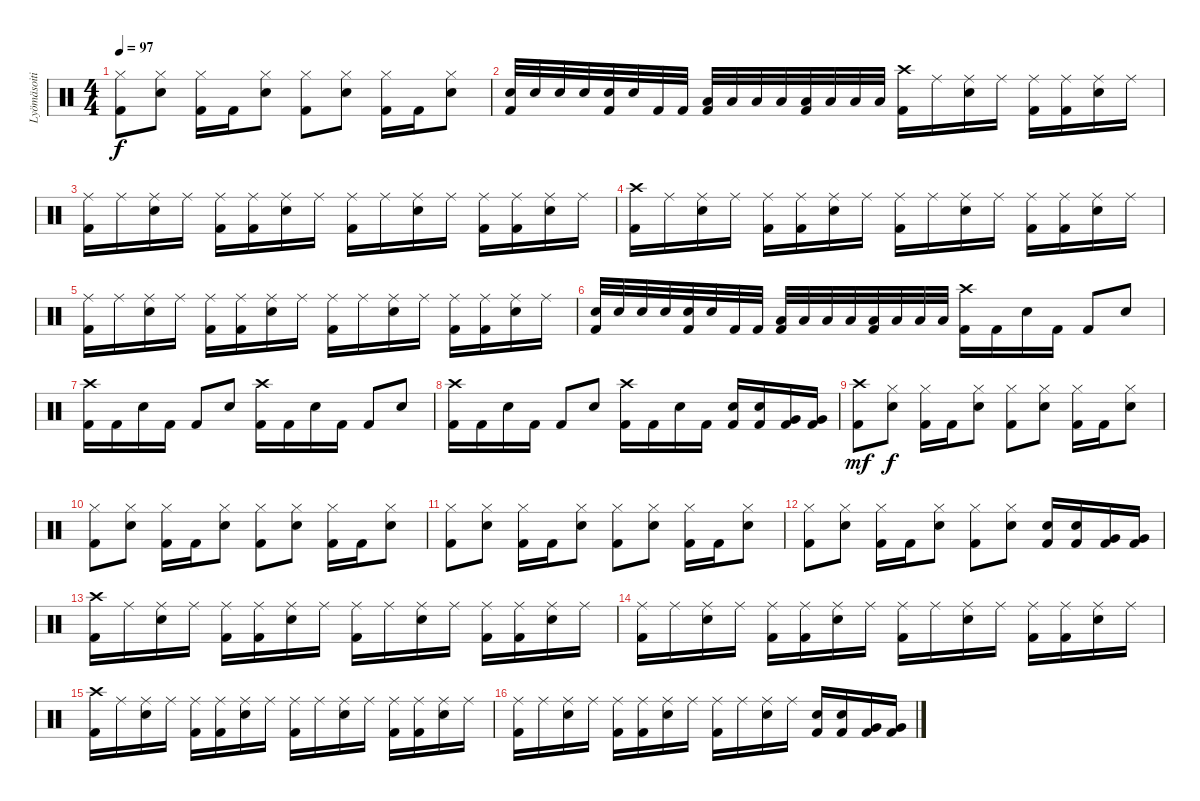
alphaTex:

\track ("Lyömäsoitin" "Lyömäsoiti") {mute instrument percussion}
\staff {score}
\articulation defaults
\ts (4 4)
\tempo 97
\clef neutral
\ks c
("Hi-Hat (closed)" "Kick (hit) 2").8{dy f} ("Hi-Hat (closed)" "Snare (hit) 2").8 ("Hi-Hat (closed)" "Kick (hit) 2").16 "Kick (hit) 2".16 ("Hi-Hat (closed)" "Snare (hit) 2").8 ("Hi-Hat (closed)" "Kick (hit) 2").8 ("Hi-Hat (closed)" "Snare (hit) 2").8 ("Hi-Hat (closed)" "Kick (hit) 2").16 "Kick (hit) 2".16 ("Hi-Hat (closed)" "Snare (hit) 2").8 |
("Snare (hit) 2" "Kick (hit) 2").32 "Snare (hit) 2".32 "Snare (hit) 2".32 "Snare (hit) 2".32 ("Snare (hit) 2" "Kick (hit) 2").32 "Snare (hit) 2".32 "Kick (hit) 2".32 "Kick (hit) 2".32 ("Low Floor Tom (hit)" "Kick (hit) 2").32 "Low Floor Tom (hit)".32 "Low Floor Tom (hit)".32 "Low Floor Tom (hit)".32 ("Low Floor Tom (hit)" "Kick (hit) 2").32 "Low Floor Tom (hit)".32 "Low Floor Tom (hit)".32 "Low Floor Tom (hit)".32 ("Crash high (hit)" "Kick (hit) 2").16 "Ride (middle)".16 ("Ride (middle)" "Snare (hit) 2").16 "Ride (middle)".16 ("Ride (middle)" "Kick (hit) 2").16 ("Ride (middle)" "Kick (hit) 2").16 ("Ride (middle)" "Snare (hit) 2").16 "Ride (middle)".16 |
("Ride (middle)" "Kick (hit) 2").16 "Ride (middle)".16 ("Ride (middle)" "Snare (hit) 2").16 "Ride (middle)".16 ("Ride (middle)" "Kick (hit) 2").16 ("Ride (middle)" "Kick (hit) 2").16 ("Ride (middle)" "Snare (hit) 2").16 "Ride (middle)".16 ("Ride (middle)" "Kick (hit) 2").16 "Ride (middle)".16 ("Ride (middle)" "Snare (hit) 2").16 "Ride (middle)".16 ("Ride (middle)" "Kick (hit) 2").16 ("Ride (middle)" "Kick (hit) 2").16 ("Ride (middle)" "Snare (hit) 2").16 "Ride (middle)".16 |
("Crash high (hit)" "Kick (hit) 2").16 "Ride (middle)".16 ("Ride (middle)" "Snare (hit) 2").16 "Ride (middle)".16 ("Ride (middle)" "Kick (hit) 2").16 ("Ride (middle)" "Kick (hit) 2").16 ("Ride (middle)" "Snare (hit) 2").16 "Ride (middle)".16 ("Ride (middle)" "Kick (hit) 2").16 "Ride (middle)".16 ("Ride (middle)" "Snare (hit) 2").16 "Ride (middle)".16 ("Ride (middle)" "Kick (hit) 2").16 ("Ride (middle)" "Kick (hit) 2").16 ("Ride (middle)" "Snare (hit) 2").16 "Ride (middle)".16 |
("Ride (middle)" "Kick (hit) 2").16 "Ride (middle)".16 ("Ride (middle)" "Snare (hit) 2").16 "Ride (middle)".16 ("Ride (middle)" "Kick (hit) 2").16 ("Ride (middle)" "Kick (hit) 2").16 ("Ride (middle)" "Snare (hit) 2").16 "Ride (middle)".16 ("Ride (middle)" "Kick (hit) 2").16 "Ride (middle)".16 ("Ride (middle)" "Snare (hit) 2").16 "Ride (middle)".16 ("Ride (middle)" "Kick (hit) 2").16 ("Ride (middle)" "Kick (hit) 2").16 ("Ride (middle)" "Snare (hit) 2").16 "Ride (middle)".16 |
("Snare (hit) 2" "Kick (hit) 2").32 "Snare (hit) 2".32 "Snare (hit) 2".32 "Snare (hit) 2".32 ("Snare (hit) 2" "Kick (hit) 2").32 "Snare (hit) 2".32 "Kick (hit) 2".32 "Kick (hit) 2".32 ("Low Floor Tom (hit)" "Kick (hit) 2").32 "Low Floor Tom (hit)".32 "Low Floor Tom (hit)".32 "Low Floor Tom (hit)".32 ("Low Floor Tom (hit)" "Kick (hit) 2").32 "Low Floor Tom (hit)".32 "Low Floor Tom (hit)".32 "Low Floor Tom (hit)".32 ("Crash high (hit)" "Kick (hit) 2").16 "Kick (hit) 2".16 "Snare (hit) 2".16 "Kick (hit) 2".16 "Kick (hit) 2".8 "Snare (hit) 2".8 |
("Crash high (hit)" "Kick (hit) 2").16 "Kick (hit) 2".16 "Snare (hit) 2".16 "Kick (hit) 2".16 "Kick (hit) 2".8 "Snare (hit) 2".8 ("Crash high (hit)" "Kick (hit) 2").16 "Kick (hit) 2".16 "Snare (hit) 2".16 "Kick (hit) 2".16 "Kick (hit) 2".8 "Snare (hit) 2".8 |
("Crash high (hit)" "Kick (hit) 2").16 "Kick (hit) 2".16 "Snare (hit) 2".16 "Kick (hit) 2".16 "Kick (hit) 2".8 "Snare (hit) 2".8 ("Crash high (hit)" "Kick (hit) 2").16 "Kick (hit) 2".16 "Snare (hit) 2".16 "Kick (hit) 2".16 ("Snare (hit) 2" "Kick (hit) 2").16 ("Snare (hit) 2" "Kick (hit) 2").16 ("Very Low Tom (hit)" "Kick (hit) 2").16 ("Very Low Tom (hit)" "Kick (hit) 2").16 |
("Crash high (hit)" "Kick (hit) 2").8{dy mf} ("Hi-Hat (closed)" "Snare (hit) 2").8{dy f} ("Hi-Hat (closed)" "Kick (hit) 2").16 "Kick (hit) 2".16 ("Hi-Hat (closed)" "Snare (hit) 2").8 ("Hi-Hat (closed)" "Kick (hit) 2").8 ("Hi-Hat (closed)" "Snare (hit) 2").8 ("Hi-Hat (closed)" "Kick (hit) 2").16 "Kick (hit) 2".16 ("Hi-Hat (closed)" "Snare (hit) 2").8 |
("Hi-Hat (closed)" "Kick (hit) 2").8 ("Hi-Hat (closed)" "Snare (hit) 2").8 ("Hi-Hat (closed)" "Kick (hit) 2").16 "Kick (hit) 2".16 ("Hi-Hat (closed)" "Snare (hit) 2").8 ("Hi-Hat (closed)" "Kick (hit) 2").8 ("Hi-Hat (closed)" "Snare (hit) 2").8 ("Hi-Hat (closed)" "Kick (hit) 2").16 "Kick (hit) 2".16 ("Hi-Hat (closed)" "Snare (hit) 2").8 |
("Hi-Hat (closed)" "Kick (hit) 2").8 ("Hi-Hat (closed)" "Snare (hit) 2").8 ("Hi-Hat (closed)" "Kick (hit) 2").16 "Kick (hit) 2".16 ("Hi-Hat (closed)" "Snare (hit) 2").8 ("Hi-Hat (closed)" "Kick (hit) 2").8 ("Hi-Hat (closed)" "Snare (hit) 2").8 ("Hi-Hat (closed)" "Kick (hit) 2").16 "Kick (hit) 2".16 ("Hi-Hat (closed)" "Snare (hit) 2").8 |
("Hi-Hat (closed)" "Kick (hit) 2").8 ("Hi-Hat (closed)" "Snare (hit) 2").8 ("Hi-Hat (closed)" "Kick (hit) 2").16 "Kick (hit) 2".16 ("Hi-Hat (closed)" "Snare (hit) 2").8 ("Hi-Hat (closed)" "Kick (hit) 2").8 ("Hi-Hat (closed)" "Snare (hit) 2").8 ("Snare (hit) 2" "Kick (hit) 2").16 ("Snare (hit) 2" "Kick (hit) 2").16 ("Very Low Tom (hit)" "Kick (hit) 2").16 ("Very Low Tom (hit)" "Kick (hit) 2").16 |
("Crash high (hit)" "Kick (hit) 2").16 "Ride (middle)".16 ("Ride (middle)" "Snare (hit) 2").16 "Ride (middle)".16 ("Ride (middle)" "Kick (hit) 2").16 ("Ride (middle)" "Kick (hit) 2").16 ("Ride (middle)" "Snare (hit) 2").16 "Ride (middle)".16 ("Ride (middle)" "Kick (hit) 2").16 "Ride (middle)".16 ("Ride (middle)" "Snare (hit) 2").16 "Ride (middle)".16 ("Ride (middle)" "Kick (hit) 2").16 ("Ride (middle)" "Kick (hit) 2").16 ("Ride (middle)" "Snare (hit) 2").16 "Ride (middle)".16 |
("Ride (middle)" "Kick (hit) 2").16 "Ride (middle)".16 ("Ride (middle)" "Snare (hit) 2").16 "Ride (middle)".16 ("Ride (middle)" "Kick (hit) 2").16 ("Ride (middle)" "Kick (hit) 2").16 ("Ride (middle)" "Snare (hit) 2").16 "Ride (middle)".16 ("Ride (middle)" "Kick (hit) 2").16 "Ride (middle)".16 ("Ride (middle)" "Snare (hit) 2").16 "Ride (middle)".16 ("Ride (middle)" "Kick (hit) 2").16 ("Ride (middle)" "Kick (hit) 2").16 ("Ride (middle)" "Snare (hit) 2").16 "Ride (middle)".16 |
("Crash high (hit)" "Kick (hit) 2").16 "Ride (middle)".16 ("Ride (middle)" "Snare (hit) 2").16 "Ride (middle)".16 ("Ride (middle)" "Kick (hit) 2").16 ("Ride (middle)" "Kick (hit) 2").16 ("Ride (middle)" "Snare (hit) 2").16 "Ride (middle)".16 ("Ride (middle)" "Kick (hit) 2").16 "Ride (middle)".16 ("Ride (middle)" "Snare (hit) 2").16 "Ride (middle)".16 ("Ride (middle)" "Kick (hit) 2").16 ("Ride (middle)" "Kick (hit) 2").16 ("Ride (middle)" "Snare (hit) 2").16 "Ride (middle)".16 |
("Ride (middle)" "Kick (hit) 2").16 "Ride (middle)".16 ("Ride (middle)" "Snare (hit) 2").16 "Ride (middle)".16 ("Ride (middle)" "Kick (hit) 2").16 ("Ride (middle)" "Kick (hit) 2").16 ("Ride (middle)" "Snare (hit) 2").16 "Ride (middle)".16 ("Ride (middle)" "Kick (hit) 2").16 "Ride (middle)".16 ("Ride (middle)" "Snare (hit) 2").16 "Ride (middle)".16 ("Snare (hit) 2" "Kick (hit) 2").16 ("Snare (hit) 2" "Kick (hit) 2").16 ("Very Low Tom (hit)" "Kick (hit) 2").16 ("Very Low Tom (hit)" "Kick (hit) 2").16
